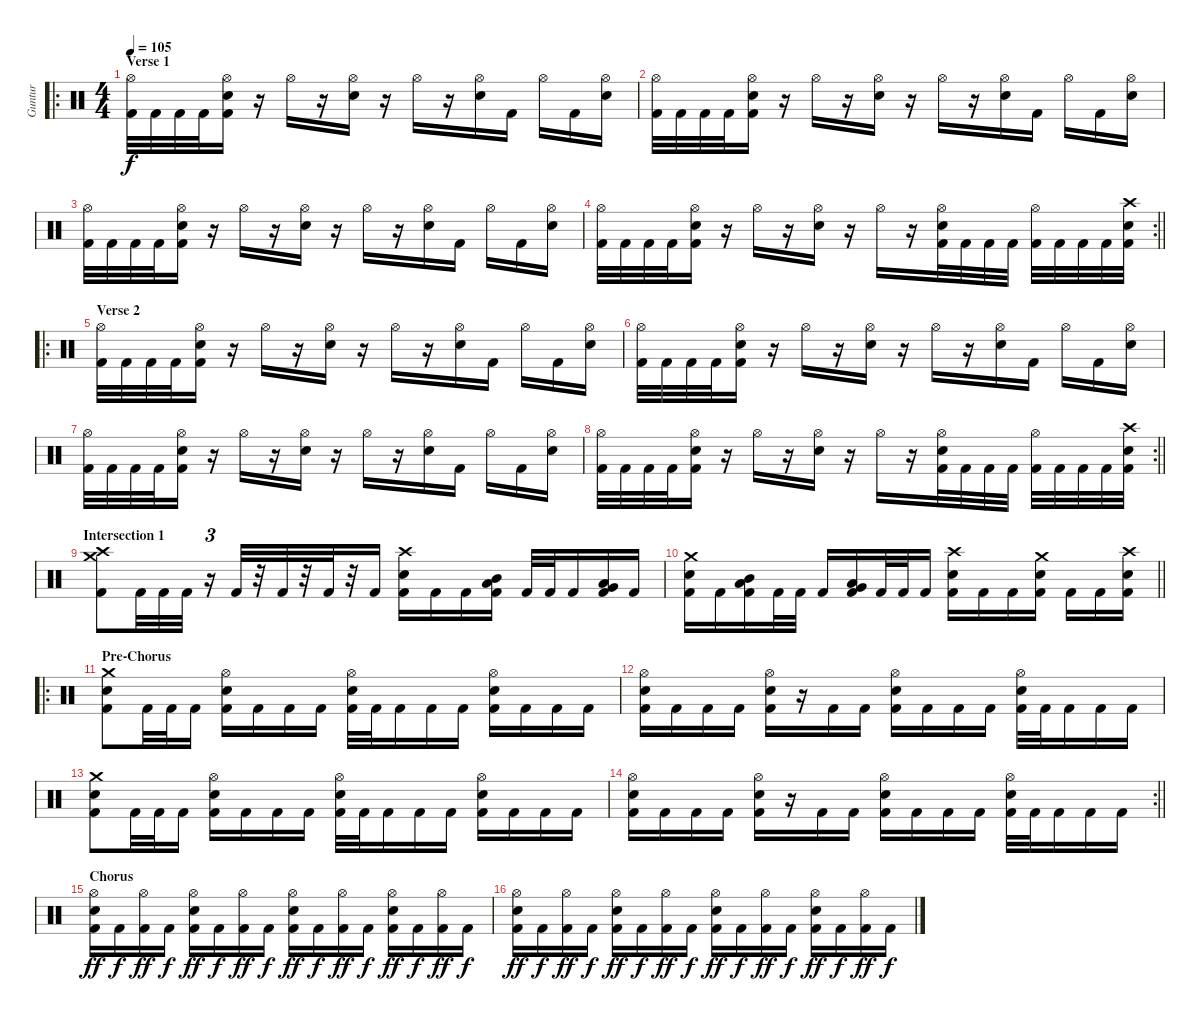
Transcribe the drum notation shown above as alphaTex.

\track ("Guntur" "Guntur") {instrument percussion}
\staff {score}
\articulation defaults
\ro
\ts (4 4)
\section ("" "Verse 1")
\tempo 105
\clef neutral
\ks c
("Hi-Hat (open)" "Kick (hit) 2").32{dy f} "Kick (hit) 2".32 "Kick (hit) 2".32 "Kick (hit) 2".32 ("Hi-Hat (open)" "Electric Snare (hit)" "Kick (hit) 2").16 r.16 "Hi-Hat (open)".16 r.16 ("Hi-Hat (open)" "Electric Snare (hit)").16 r.16 "Hi-Hat (open)".16 r.16 ("Hi-Hat (open)" "Electric Snare (hit)").16 "Kick (hit) 2".16 "Hi-Hat (open)".16 "Kick (hit) 2".16 ("Hi-Hat (open)" "Electric Snare (hit)").16 |
("Hi-Hat (open)" "Kick (hit) 2").32 "Kick (hit) 2".32 "Kick (hit) 2".32 "Kick (hit) 2".32 ("Hi-Hat (open)" "Electric Snare (hit)" "Kick (hit) 2").16 r.16 "Hi-Hat (open)".16 r.16 ("Hi-Hat (open)" "Electric Snare (hit)").16 r.16 "Hi-Hat (open)".16 r.16 ("Hi-Hat (open)" "Electric Snare (hit)").16 "Kick (hit) 2".16 "Hi-Hat (open)".16 "Kick (hit) 2".16 ("Hi-Hat (open)" "Electric Snare (hit)").16 |
("Hi-Hat (open)" "Kick (hit) 2").32 "Kick (hit) 2".32 "Kick (hit) 2".32 "Kick (hit) 2".32 ("Hi-Hat (open)" "Electric Snare (hit)" "Kick (hit) 2").16 r.16 "Hi-Hat (open)".16 r.16 ("Hi-Hat (open)" "Electric Snare (hit)").16 r.16 "Hi-Hat (open)".16 r.16 ("Hi-Hat (open)" "Electric Snare (hit)").16 "Kick (hit) 2".16 "Hi-Hat (open)".16 "Kick (hit) 2".16 ("Hi-Hat (open)" "Electric Snare (hit)").16 |
\rc 2
\barLineRight lightlight
("Hi-Hat (open)" "Kick (hit) 2").32 "Kick (hit) 2".32 "Kick (hit) 2".32 "Kick (hit) 2".32 ("Hi-Hat (open)" "Electric Snare (hit)" "Kick (hit) 2").16 r.16 "Hi-Hat (open)".16 r.16 ("Hi-Hat (open)" "Electric Snare (hit)").16 r.16 "Hi-Hat (open)".16 r.16 ("Hi-Hat (open)" "Electric Snare (hit)" "Kick (hit) 2").32 "Kick (hit) 2".32 "Kick (hit) 2".32 "Kick (hit) 2".32 ("Hi-Hat (open)" "Kick (hit) 2").32 "Kick (hit) 2".32 "Kick (hit) 2".32 "Kick (hit) 2".32 ("Crash high (hit)" "Electric Snare (hit)" "Kick (hit) 2").32 |
\ro
\section ("" "Verse 2")
("Hi-Hat (open)" "Kick (hit) 2").32 "Kick (hit) 2".32 "Kick (hit) 2".32 "Kick (hit) 2".32 ("Hi-Hat (open)" "Electric Snare (hit)" "Kick (hit) 2").16 r.16 "Hi-Hat (open)".16 r.16 ("Hi-Hat (open)" "Electric Snare (hit)").16 r.16 "Hi-Hat (open)".16 r.16 ("Hi-Hat (open)" "Electric Snare (hit)").16 "Kick (hit) 2".16 "Hi-Hat (open)".16 "Kick (hit) 2".16 ("Hi-Hat (open)" "Electric Snare (hit)").16 |
("Hi-Hat (open)" "Kick (hit) 2").32 "Kick (hit) 2".32 "Kick (hit) 2".32 "Kick (hit) 2".32 ("Hi-Hat (open)" "Electric Snare (hit)" "Kick (hit) 2").16 r.16 "Hi-Hat (open)".16 r.16 ("Hi-Hat (open)" "Electric Snare (hit)").16 r.16 "Hi-Hat (open)".16 r.16 ("Hi-Hat (open)" "Electric Snare (hit)").16 "Kick (hit) 2".16 "Hi-Hat (open)".16 "Kick (hit) 2".16 ("Hi-Hat (open)" "Electric Snare (hit)").16 |
("Hi-Hat (open)" "Kick (hit) 2").32 "Kick (hit) 2".32 "Kick (hit) 2".32 "Kick (hit) 2".32 ("Hi-Hat (open)" "Electric Snare (hit)" "Kick (hit) 2").16 r.16 "Hi-Hat (open)".16 r.16 ("Hi-Hat (open)" "Electric Snare (hit)").16 r.16 "Hi-Hat (open)".16 r.16 ("Hi-Hat (open)" "Electric Snare (hit)").16 "Kick (hit) 2".16 "Hi-Hat (open)".16 "Kick (hit) 2".16 ("Hi-Hat (open)" "Electric Snare (hit)").16 |
\rc 2
\barLineRight lightlight
("Hi-Hat (open)" "Kick (hit) 2").32 "Kick (hit) 2".32 "Kick (hit) 2".32 "Kick (hit) 2".32 ("Hi-Hat (open)" "Electric Snare (hit)" "Kick (hit) 2").16 r.16 "Hi-Hat (open)".16 r.16 ("Hi-Hat (open)" "Electric Snare (hit)").16 r.16 "Hi-Hat (open)".16 r.16 ("Hi-Hat (open)" "Electric Snare (hit)" "Kick (hit) 2").32 "Kick (hit) 2".32 "Kick (hit) 2".32 "Kick (hit) 2".32 ("Hi-Hat (open)" "Kick (hit) 2").32 "Kick (hit) 2".32 "Kick (hit) 2".32 "Kick (hit) 2".32 ("Crash high (hit)" "Electric Snare (hit)" "Kick (hit) 2").32 |
\section ("" "Intersection 1")
("Crash high (hit)" "Crash medium (hit)" "Kick (hit) 2").8 "Kick (hit) 2".32 "Kick (hit) 2".32 "Kick (hit) 2".32 r.16{tu (3 2)} "Kick (hit) 2".32 r.32 "Kick (hit) 2".32 r.32 "Kick (hit) 2".32 r.32 "Kick (hit) 2".16 ("Crash high (hit)" "Electric Snare (hit)" "Kick (hit) 2").16 "Kick (hit) 2".16 "Kick (hit) 2".16 ("Low Tom (hit)" "Mid Tom (hit)" "Kick (hit) 2").16 "Kick (hit) 2".32 "Kick (hit) 2".32 "Kick (hit) 2".16 ("Low Floor Tom (hit)" "Very Low Tom (hit)" "Kick (hit) 2").16 "Kick (hit) 2".16 |
\barLineRight lightlight
("Crash medium (hit)" "Electric Snare (hit)" "Kick (hit) 2").16 "Kick (hit) 2".16 ("Low Tom (hit)" "Mid Tom (hit)" "Kick (hit) 2").16 "Kick (hit) 2".32 "Kick (hit) 2".32 "Kick (hit) 2".16 ("Low Floor Tom (hit)" "Very Low Tom (hit)" "Kick (hit) 2").16 "Kick (hit) 2".32 "Kick (hit) 2".32 "Kick (hit) 2".16 ("Crash high (hit)" "Electric Snare (hit)" "Kick (hit) 2").16 "Kick (hit) 2".16 "Kick (hit) 2".16 ("Crash medium (hit)" "Electric Snare (hit)" "Kick (hit) 2").16 "Kick (hit) 2".16 "Kick (hit) 2".16 ("Crash high (hit)" "Electric Snare (hit)" "Kick (hit) 2").16 |
\ro
\section ("" "Pre-Chorus")
("Crash medium (hit)" "Electric Snare (hit)" "Kick (hit) 2").8 "Kick (hit) 2".32 "Kick (hit) 2".32 "Kick (hit) 2".16 ("Hi-Hat (open)" "Electric Snare (hit)" "Kick (hit) 2").16 "Kick (hit) 2".16 "Kick (hit) 2".16 "Kick (hit) 2".16 ("Hi-Hat (open)" "Electric Snare (hit)" "Kick (hit) 2").32 "Kick (hit) 2".32 "Kick (hit) 2".16 "Kick (hit) 2".16 "Kick (hit) 2".16 ("Hi-Hat (open)" "Electric Snare (hit)" "Kick (hit) 2").16 "Kick (hit) 2".16 "Kick (hit) 2".16 "Kick (hit) 2".16 |
("Hi-Hat (open)" "Electric Snare (hit)" "Kick (hit) 2").16 "Kick (hit) 2".16 "Kick (hit) 2".16 "Kick (hit) 2".16 ("Hi-Hat (open)" "Electric Snare (hit)" "Kick (hit) 2").16 r.16 "Kick (hit) 2".16 "Kick (hit) 2".16 ("Hi-Hat (open)" "Electric Snare (hit)" "Kick (hit) 2").16 "Kick (hit) 2".16 "Kick (hit) 2".16 "Kick (hit) 2".16 ("Hi-Hat (open)" "Electric Snare (hit)" "Kick (hit) 2").32 "Kick (hit) 2".32 "Kick (hit) 2".16 "Kick (hit) 2".16 "Kick (hit) 2".16 |
("Crash medium (hit)" "Electric Snare (hit)" "Kick (hit) 2").8 "Kick (hit) 2".32 "Kick (hit) 2".32 "Kick (hit) 2".16 ("Hi-Hat (open)" "Electric Snare (hit)" "Kick (hit) 2").16 "Kick (hit) 2".16 "Kick (hit) 2".16 "Kick (hit) 2".16 ("Hi-Hat (open)" "Electric Snare (hit)" "Kick (hit) 2").32 "Kick (hit) 2".32 "Kick (hit) 2".16 "Kick (hit) 2".16 "Kick (hit) 2".16 ("Hi-Hat (open)" "Electric Snare (hit)" "Kick (hit) 2").16 "Kick (hit) 2".16 "Kick (hit) 2".16 "Kick (hit) 2".16 |
\rc 2
\barLineRight lightlight
("Hi-Hat (open)" "Electric Snare (hit)" "Kick (hit) 2").16 "Kick (hit) 2".16 "Kick (hit) 2".16 "Kick (hit) 2".16 ("Hi-Hat (open)" "Electric Snare (hit)" "Kick (hit) 2").16 r.16 "Kick (hit) 2".16 "Kick (hit) 2".16 ("Hi-Hat (open)" "Electric Snare (hit)" "Kick (hit) 2").16 "Kick (hit) 2".16 "Kick (hit) 2".16 "Kick (hit) 2".16 ("Hi-Hat (open)" "Electric Snare (hit)" "Kick (hit) 2").32 "Kick (hit) 2".32 "Kick (hit) 2".16 "Kick (hit) 2".16 "Kick (hit) 2".16 |
\section ("" "Chorus")
("Hi-Hat (open)" "Electric Snare (hit)" "Kick (hit) 2").16{dy ff} "Kick (hit) 2".16{dy f} ("Hi-Hat (open)" "Kick (hit) 2").16{dy ff} "Kick (hit) 2".16{dy f} ("Hi-Hat (open)" "Electric Snare (hit)" "Kick (hit) 2").16{dy ff} "Kick (hit) 2".16{dy f} ("Hi-Hat (open)" "Kick (hit) 2").16{dy ff} "Kick (hit) 2".16{dy f} ("Hi-Hat (open)" "Electric Snare (hit)" "Kick (hit) 2").16{dy ff} "Kick (hit) 2".16{dy f} ("Hi-Hat (open)" "Kick (hit) 2").16{dy ff} "Kick (hit) 2".16{dy f} ("Hi-Hat (open)" "Electric Snare (hit)" "Kick (hit) 2").16{dy ff} "Kick (hit) 2".16{dy f} ("Hi-Hat (open)" "Kick (hit) 2").16{dy ff} "Kick (hit) 2".16{dy f} |
("Hi-Hat (open)" "Electric Snare (hit)" "Kick (hit) 2").16{dy ff} "Kick (hit) 2".16{dy f} ("Hi-Hat (open)" "Kick (hit) 2").16{dy ff} "Kick (hit) 2".16{dy f} ("Hi-Hat (open)" "Electric Snare (hit)" "Kick (hit) 2").16{dy ff} "Kick (hit) 2".16{dy f} ("Hi-Hat (open)" "Kick (hit) 2").16{dy ff} "Kick (hit) 2".16{dy f} ("Hi-Hat (open)" "Electric Snare (hit)" "Kick (hit) 2").16{dy ff} "Kick (hit) 2".16{dy f} ("Hi-Hat (open)" "Kick (hit) 2").16{dy ff} "Kick (hit) 2".16{dy f} ("Hi-Hat (open)" "Electric Snare (hit)" "Kick (hit) 2").16{dy ff} "Kick (hit) 2".16{dy f} ("Hi-Hat (open)" "Kick (hit) 2").16{dy ff} "Kick (hit) 2".16{dy f}
